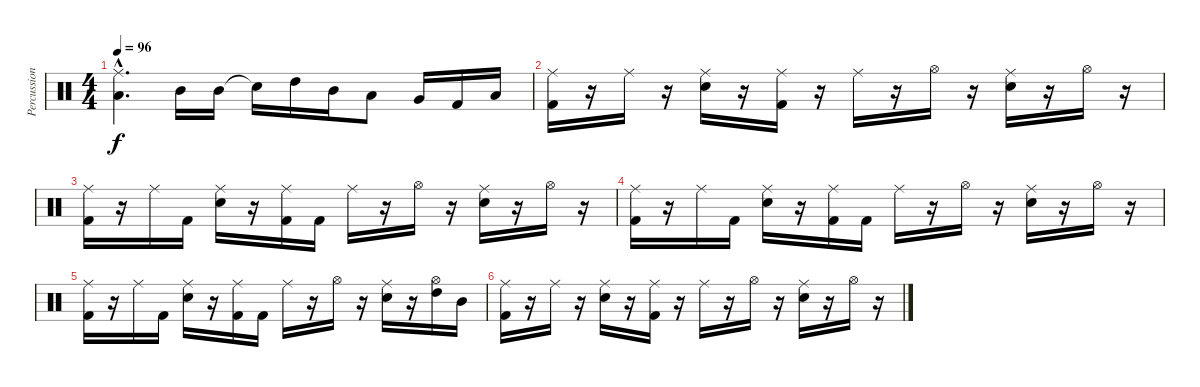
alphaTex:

\track ("Percussion" "Percussion") {instrument percussion}
\staff {score}
\articulation defaults
\ts (4 4)
\tempo 96
\clef neutral
\ks c
("Ride (middle)"{hac} "Low Floor Tom (hit)"{hac}).4{d dy f} "Mid Tom (hit)".16 "Mid Tom (hit)".16 "Snare (hit)"{t}.16 "High Tom (hit)".16 "Mid Tom (hit)".16 "Low Tom (hit)".8 "Very Low Tom (hit)".16 "Kick (hit) 2".16 "Low Floor Tom (hit)".16 |
("Ride (middle)" "Kick (hit) 2").16 r.16 "Ride (middle)".16 r.16 ("Ride (middle)" "Snare (hit) 2").16 r.16 ("Ride (middle)" "Kick (hit) 2").16 r.16 "Ride (middle)".16 r.16 "Hi-Hat (open)".16 r.16 ("Ride (middle)" "Snare (hit) 2").16 r.16 "Hi-Hat (open)".16 r.16 |
("Ride (middle)" "Kick (hit) 2").16 r.16 "Ride (middle)".16 "Kick (hit) 2".16 ("Ride (middle)" "Snare (hit) 2").16 r.16 ("Ride (middle)" "Kick (hit) 2").16 "Kick (hit) 2".16 "Ride (middle)".16 r.16 "Hi-Hat (open)".16 r.16 ("Ride (middle)" "Snare (hit) 2").16 r.16 "Hi-Hat (open)".16 r.16 |
("Ride (middle)" "Kick (hit) 2").16 r.16 "Ride (middle)".16 "Kick (hit) 2".16 ("Ride (middle)" "Snare (hit) 2").16 r.16 ("Ride (middle)" "Kick (hit) 2").16 "Kick (hit) 2".16 "Ride (middle)".16 r.16 "Hi-Hat (open)".16 r.16 ("Ride (middle)" "Snare (hit) 2").16 r.16 "Hi-Hat (open)".16 r.16 |
("Ride (middle)" "Kick (hit) 2").16 r.16 "Ride (middle)".16 "Kick (hit) 2".16 ("Ride (middle)" "Snare (hit) 2").16 r.16 ("Ride (middle)" "Kick (hit) 2").16 "Kick (hit) 2".16 "Ride (middle)".16 r.16 "Hi-Hat (open)".16 r.16 ("Ride (middle)" "Snare (hit) 2").16 r.16 ("Hi-Hat (open)" "High Tom (hit)").16 "Mid Tom (hit)".16 |
("Ride (middle)" "Kick (hit) 2").16 r.16 "Ride (middle)".16 r.16 ("Ride (middle)" "Snare (hit) 2").16 r.16 ("Ride (middle)" "Kick (hit) 2").16 r.16 "Ride (middle)".16 r.16 "Hi-Hat (open)".16 r.16 ("Ride (middle)" "Snare (hit) 2").16 r.16 "Hi-Hat (open)".16 r.16
